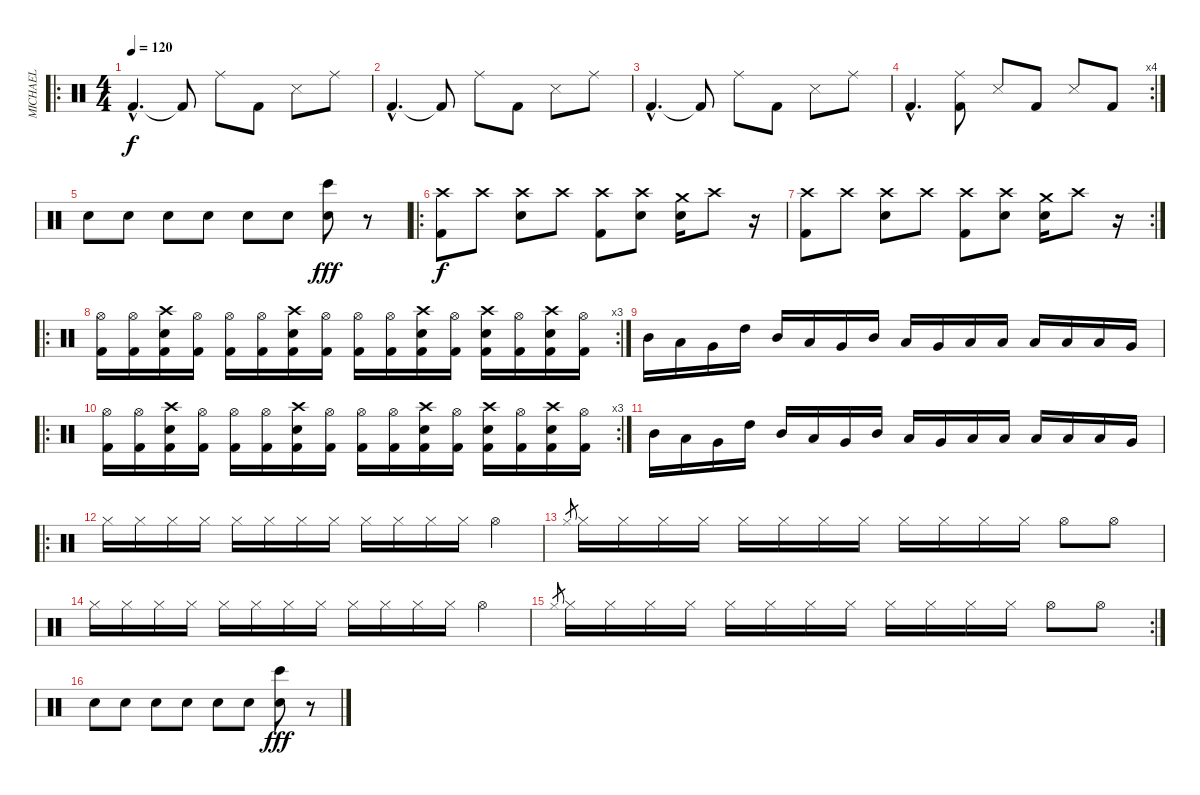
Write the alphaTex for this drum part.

\track ("MICHAEL" "MICHAEL") {instrument percussion}
\staff {score}
\articulation defaults
\ro
\ts (4 4)
\tempo 120
\clef neutral
\ks c "Kick (hit) 2"{hac}.4{d dy f} "Kick (hit) 2"{t}.8 "Ride (middle)".8 "Kick (hit) 2".8 "Snare (side stick) 3".8 "Ride (middle)".8
|
"Kick (hit) 2"{hac}.4{d} "Kick (hit) 2"{t}.8 "Ride (middle)".8 "Kick (hit) 2".8 "Snare (side stick) 3".8 "Ride (middle)".8 |
"Kick (hit) 2"{hac}.4{d} "Kick (hit) 2"{t}.8 "Ride (middle)".8 "Kick (hit) 2".8 "Snare (side stick) 3".8 "Ride (middle)".8 |
\rc 4 "Kick (hit) 2"{hac}.4{d}
("Ride (middle)" "Kick (hit) 2").8 "Snare (side stick) 3".8 "Kick (hit) 2".8 "Snare (side stick) 3".8 "Kick (hit) 2".8 |
"Electric Snare (hit)".8 "Electric Snare (hit)".8 "Electric Snare (hit)".8 "Electric Snare (hit)".8 "Electric Snare (hit)".8 "Electric Snare (hit)".8 ("Bongo High (hit)" "Electric Snare (hit)").8{dy fff} r.8 |
\ro
("Crash high (hit)" "Kick (hit) 2").8{dy f} "Crash high (hit)".8 ("Crash high (hit)" "Electric Snare (hit)").8 "Crash high (hit)".8 ("Crash high (hit)" "Kick (hit) 2").8 ("Crash high (hit)" "Electric Snare (hit)").8 ("Crash medium (hit)" "Electric Snare (hit)").16 "Crash high (hit)".8 r.16 |
\rc 2
("Crash high (hit)" "Kick (hit) 2").8 "Crash high (hit)".8 ("Crash high (hit)" "Electric Snare (hit)").8 "Crash high (hit)".8 ("Crash high (hit)" "Kick (hit) 2").8 ("Crash high (hit)" "Electric Snare (hit)").8 ("Crash medium (hit)" "Electric Snare (hit)").16 "Crash high (hit)".8 r.16 |
\ro
\rc 3
("Hi-Hat (open)" "Kick (hit) 2").16 ("Hi-Hat (open)" "Kick (hit) 2").16 ("Crash high (hit)" "Electric Snare (hit)" "Kick (hit) 2").16 ("Hi-Hat (open)" "Kick (hit) 2").16 ("Hi-Hat (open)" "Kick (hit) 2").16 ("Hi-Hat (open)" "Kick (hit) 2").16 ("Crash high (hit)" "Electric Snare (hit)" "Kick (hit) 2").16 ("Hi-Hat (open)" "Kick (hit) 2").16 ("Hi-Hat (open)" "Kick (hit) 2").16 ("Hi-Hat (open)" "Kick (hit) 2").16 ("Crash high (hit)" "Electric Snare (hit)" "Kick (hit) 2").16 ("Hi-Hat (open)" "Kick (hit) 2").16 ("Crash high (hit)" "Electric Snare (hit)" "Kick (hit) 2").16 ("Hi-Hat (open)" "Kick (hit) 2").16 ("Crash high (hit)" "Electric Snare (hit)" "Kick (hit) 2").16 ("Hi-Hat (open)" "Kick (hit) 2").16 |
"Mid Tom (hit)".16 "Low Tom (hit)".16 "Very Low Tom (hit)".16 "High Tom (hit)".16 "Mid Tom (hit)".16 "Low Tom (hit)".16 "Very Low Tom (hit)".16 "Mid Tom (hit)".16 "Low Tom (hit)".16 "Very Low Tom (hit)".16 "Low Tom (hit)".16 "Low Floor Tom (hit)".16 "Low Tom (hit)".16 "Low Floor Tom (hit)".16 "Low Floor Tom (hit)".16 "Very Low Tom (hit)".16 |
\ro
\rc 3
("Hi-Hat (open)" "Kick (hit) 2").16 ("Hi-Hat (open)" "Kick (hit) 2").16 ("Crash high (hit)" "Electric Snare (hit)" "Kick (hit) 2").16 ("Hi-Hat (open)" "Kick (hit) 2").16 ("Hi-Hat (open)" "Kick (hit) 2").16 ("Hi-Hat (open)" "Kick (hit) 2").16 ("Crash high (hit)" "Electric Snare (hit)" "Kick (hit) 2").16 ("Hi-Hat (open)" "Kick (hit) 2").16 ("Hi-Hat (open)" "Kick (hit) 2").16 ("Hi-Hat (open)" "Kick (hit) 2").16 ("Crash high (hit)" "Electric Snare (hit)" "Kick (hit) 2").16 ("Hi-Hat (open)" "Kick (hit) 2").16 ("Crash high (hit)" "Electric Snare (hit)" "Kick (hit) 2").16 ("Hi-Hat (open)" "Kick (hit) 2").16 ("Crash high (hit)" "Electric Snare (hit)" "Kick (hit) 2").16 ("Hi-Hat (open)" "Kick (hit) 2").16 |
"Mid Tom (hit)".16 "Low Tom (hit)".16 "Very Low Tom (hit)".16 "High Tom (hit)".16 "Mid Tom (hit)".16 "Low Tom (hit)".16 "Very Low Tom (hit)".16 "Mid Tom (hit)".16 "Low Tom (hit)".16 "Very Low Tom (hit)".16 "Low Tom (hit)".16 "Low Floor Tom (hit)".16 "Low Tom (hit)".16 "Low Floor Tom (hit)".16 "Low Floor Tom (hit)".16 "Very Low Tom (hit)".16 |
\ro "Hi-Hat (closed)".16 "Hi-Hat (closed)".16 "Hi-Hat (closed)".16 "Hi-Hat (closed)".16 "Hi-Hat (closed)".16 "Hi-Hat (closed)".16 "Hi-Hat (closed)".16 "Hi-Hat (closed)".16 "Hi-Hat (closed)".16 "Hi-Hat (closed)".16 "Hi-Hat (closed)".16 "Hi-Hat (closed)".16 "Hi-Hat (open)".4
|
"Hi-Hat (closed)".8{gr} "Hi-Hat (closed)".16 "Hi-Hat (closed)".16 "Hi-Hat (closed)".16 "Hi-Hat (closed)".16 "Hi-Hat (closed)".16 "Hi-Hat (closed)".16 "Hi-Hat (closed)".16 "Hi-Hat (closed)".16 "Hi-Hat (closed)".16 "Hi-Hat (closed)".16 "Hi-Hat (closed)".16 "Hi-Hat (closed)".16 "Hi-Hat (open)".8 "Hi-Hat (open)".8 |
"Hi-Hat (closed)".16 "Hi-Hat (closed)".16 "Hi-Hat (closed)".16 "Hi-Hat (closed)".16 "Hi-Hat (closed)".16 "Hi-Hat (closed)".16 "Hi-Hat (closed)".16 "Hi-Hat (closed)".16 "Hi-Hat (closed)".16 "Hi-Hat (closed)".16 "Hi-Hat (closed)".16 "Hi-Hat (closed)".16 "Hi-Hat (open)".4 |
\rc 2 "Hi-Hat (closed)".8{gr} "Hi-Hat (closed)".16 "Hi-Hat (closed)".16 "Hi-Hat (closed)".16 "Hi-Hat (closed)".16 "Hi-Hat (closed)".16 "Hi-Hat (closed)".16 "Hi-Hat (closed)".16 "Hi-Hat (closed)".16 "Hi-Hat (closed)".16 "Hi-Hat (closed)".16 "Hi-Hat (closed)".16 "Hi-Hat (closed)".16 "Hi-Hat (open)".8 "Hi-Hat (open)".8
|
"Electric Snare (hit)".8 "Electric Snare (hit)".8 "Electric Snare (hit)".8 "Electric Snare (hit)".8 "Electric Snare (hit)".8 "Electric Snare (hit)".8 ("Bongo High (hit)" "Electric Snare (hit)").8{dy fff} r.8
